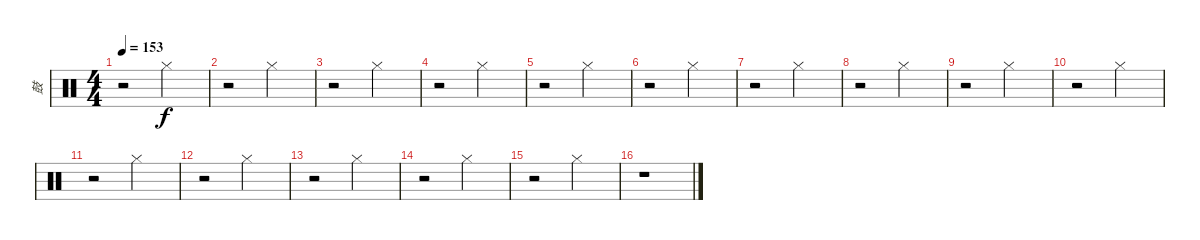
\track ("鼓" "鼓") {instrument percussion}
\staff {score}
\articulation defaults
\ts (4 4)
\tempo 153
\clef neutral
\ks c
r.2{dy f} "Hi-Hat (closed)".2 |
r.2 "Hi-Hat (closed)".2 |
r.2 "Hi-Hat (closed)".2 |
r.2 "Hi-Hat (closed)".2 |
r.2 "Hi-Hat (closed)".2 |
r.2 "Hi-Hat (closed)".2 |
r.2 "Hi-Hat (closed)".2 |
r.2 "Hi-Hat (closed)".2 |
r.2 "Hi-Hat (closed)".2 |
r.2 "Hi-Hat (closed)".2 |
r.2 "Hi-Hat (closed)".2 |
r.2 "Hi-Hat (closed)".2 |
r.2 "Hi-Hat (closed)".2 |
r.2 "Hi-Hat (closed)".2 |
r.2 "Hi-Hat (closed)".2 |
r.1
